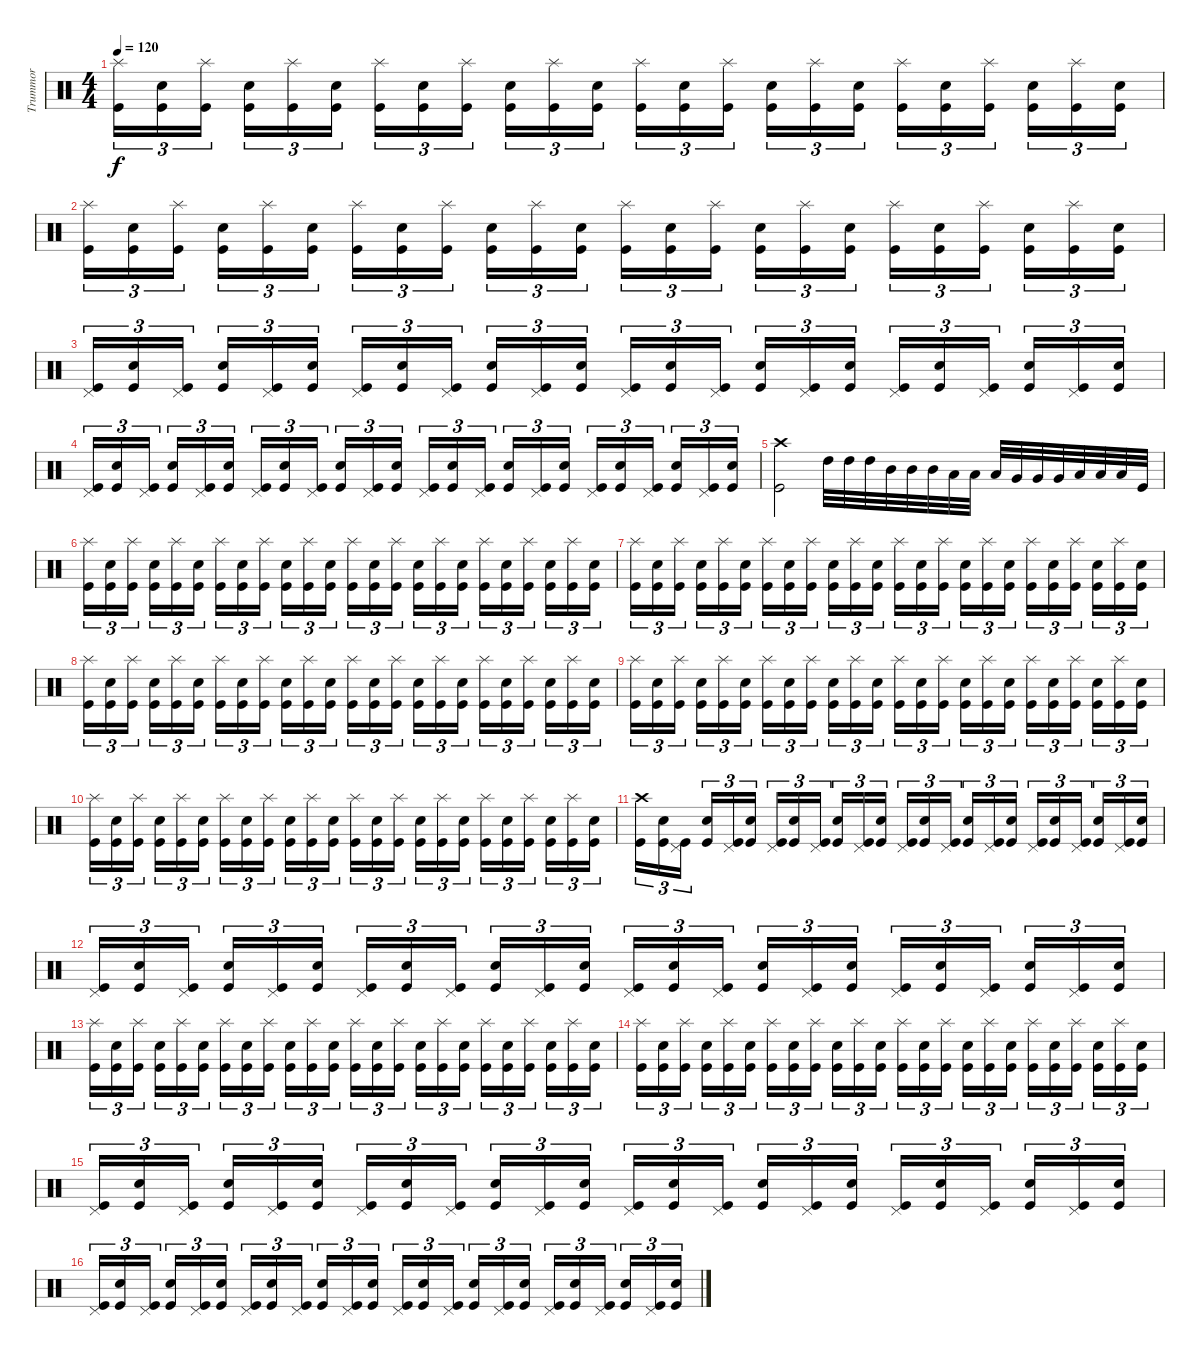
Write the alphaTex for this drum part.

\track ("Trummor" "Trummor") {instrument percussion}
\staff {score}
\articulation defaults
\ts (4 4)
\tempo 120
\clef neutral
\ks c
("Splash (hit)" "Kick (hit)").16{tu (3 2) dy f} ("Electric Snare (hit)" "Kick (hit)").16{tu (3 2)} ("Splash (hit)" "Kick (hit)").16{tu (3 2)} ("Electric Snare (hit)" "Kick (hit)").16{tu (3 2)} ("Splash (hit)" "Kick (hit)").16{tu (3 2)} ("Electric Snare (hit)" "Kick (hit)").16{tu (3 2)} ("Splash (hit)" "Kick (hit)").16{tu (3 2)} ("Electric Snare (hit)" "Kick (hit)").16{tu (3 2)} ("Splash (hit)" "Kick (hit)").16{tu (3 2)} ("Electric Snare (hit)" "Kick (hit)").16{tu (3 2)} ("Splash (hit)" "Kick (hit)").16{tu (3 2)} ("Electric Snare (hit)" "Kick (hit)").16{tu (3 2)} ("Splash (hit)" "Kick (hit)").16{tu (3 2)} ("Electric Snare (hit)" "Kick (hit)").16{tu (3 2)} ("Splash (hit)" "Kick (hit)").16{tu (3 2)} ("Electric Snare (hit)" "Kick (hit)").16{tu (3 2)} ("Splash (hit)" "Kick (hit)").16{tu (3 2)} ("Electric Snare (hit)" "Kick (hit)").16{tu (3 2)} ("Splash (hit)" "Kick (hit)").16{tu (3 2)} ("Electric Snare (hit)" "Kick (hit)").16{tu (3 2)} ("Splash (hit)" "Kick (hit)").16{tu (3 2)} ("Electric Snare (hit)" "Kick (hit)").16{tu (3 2)} ("Splash (hit)" "Kick (hit)").16{tu (3 2)} ("Electric Snare (hit)" "Kick (hit)").16{tu (3 2)} |
("Splash (hit)" "Kick (hit)").16{tu (3 2)} ("Electric Snare (hit)" "Kick (hit)").16{tu (3 2)} ("Splash (hit)" "Kick (hit)").16{tu (3 2)} ("Electric Snare (hit)" "Kick (hit)").16{tu (3 2)} ("Splash (hit)" "Kick (hit)").16{tu (3 2)} ("Electric Snare (hit)" "Kick (hit)").16{tu (3 2)} ("Splash (hit)" "Kick (hit)").16{tu (3 2)} ("Electric Snare (hit)" "Kick (hit)").16{tu (3 2)} ("Splash (hit)" "Kick (hit)").16{tu (3 2)} ("Electric Snare (hit)" "Kick (hit)").16{tu (3 2)} ("Splash (hit)" "Kick (hit)").16{tu (3 2)} ("Electric Snare (hit)" "Kick (hit)").16{tu (3 2)} ("Splash (hit)" "Kick (hit)").16{tu (3 2)} ("Electric Snare (hit)" "Kick (hit)").16{tu (3 2)} ("Splash (hit)" "Kick (hit)").16{tu (3 2)} ("Electric Snare (hit)" "Kick (hit)").16{tu (3 2)} ("Splash (hit)" "Kick (hit)").16{tu (3 2)} ("Electric Snare (hit)" "Kick (hit)").16{tu (3 2)} ("Splash (hit)" "Kick (hit)").16{tu (3 2)} ("Electric Snare (hit)" "Kick (hit)").16{tu (3 2)} ("Splash (hit)" "Kick (hit)").16{tu (3 2)} ("Electric Snare (hit)" "Kick (hit)").16{tu (3 2)} ("Splash (hit)" "Kick (hit)").16{tu (3 2)} ("Electric Snare (hit)" "Kick (hit)").16{tu (3 2)} |
("Pedal Hi-Hat (hit)" "Kick (hit)").16{tu (3 2)} ("Electric Snare (hit)" "Kick (hit)").16{tu (3 2)} ("Pedal Hi-Hat (hit)" "Kick (hit)").16{tu (3 2)} ("Electric Snare (hit)" "Kick (hit)").16{tu (3 2)} ("Pedal Hi-Hat (hit)" "Kick (hit)").16{tu (3 2)} ("Electric Snare (hit)" "Kick (hit)").16{tu (3 2)} ("Pedal Hi-Hat (hit)" "Kick (hit)").16{tu (3 2)} ("Electric Snare (hit)" "Kick (hit)").16{tu (3 2)} ("Pedal Hi-Hat (hit)" "Kick (hit)").16{tu (3 2)} ("Electric Snare (hit)" "Kick (hit)").16{tu (3 2)} ("Pedal Hi-Hat (hit)" "Kick (hit)").16{tu (3 2)} ("Electric Snare (hit)" "Kick (hit)").16{tu (3 2)} ("Pedal Hi-Hat (hit)" "Kick (hit)").16{tu (3 2)} ("Electric Snare (hit)" "Kick (hit)").16{tu (3 2)} ("Pedal Hi-Hat (hit)" "Kick (hit)").16{tu (3 2)} ("Electric Snare (hit)" "Kick (hit)").16{tu (3 2)} ("Pedal Hi-Hat (hit)" "Kick (hit)").16{tu (3 2)} ("Electric Snare (hit)" "Kick (hit)").16{tu (3 2)} ("Pedal Hi-Hat (hit)" "Kick (hit)").16{tu (3 2)} ("Electric Snare (hit)" "Kick (hit)").16{tu (3 2)} ("Pedal Hi-Hat (hit)" "Kick (hit)").16{tu (3 2)} ("Electric Snare (hit)" "Kick (hit)").16{tu (3 2)} ("Pedal Hi-Hat (hit)" "Kick (hit)").16{tu (3 2)} ("Electric Snare (hit)" "Kick (hit)").16{tu (3 2)} |
("Pedal Hi-Hat (hit)" "Kick (hit)").16{tu (3 2)} ("Electric Snare (hit)" "Kick (hit)").16{tu (3 2)} ("Pedal Hi-Hat (hit)" "Kick (hit)").16{tu (3 2)} ("Electric Snare (hit)" "Kick (hit)").16{tu (3 2)} ("Pedal Hi-Hat (hit)" "Kick (hit)").16{tu (3 2)} ("Electric Snare (hit)" "Kick (hit)").16{tu (3 2)} ("Pedal Hi-Hat (hit)" "Kick (hit)").16{tu (3 2)} ("Electric Snare (hit)" "Kick (hit)").16{tu (3 2)} ("Pedal Hi-Hat (hit)" "Kick (hit)").16{tu (3 2)} ("Electric Snare (hit)" "Kick (hit)").16{tu (3 2)} ("Pedal Hi-Hat (hit)" "Kick (hit)").16{tu (3 2)} ("Electric Snare (hit)" "Kick (hit)").16{tu (3 2)} ("Pedal Hi-Hat (hit)" "Kick (hit)").16{tu (3 2)} ("Electric Snare (hit)" "Kick (hit)").16{tu (3 2)} ("Pedal Hi-Hat (hit)" "Kick (hit)").16{tu (3 2)} ("Electric Snare (hit)" "Kick (hit)").16{tu (3 2)} ("Pedal Hi-Hat (hit)" "Kick (hit)").16{tu (3 2)} ("Electric Snare (hit)" "Kick (hit)").16{tu (3 2)} ("Pedal Hi-Hat (hit)" "Kick (hit)").16{tu (3 2)} ("Electric Snare (hit)" "Kick (hit)").16{tu (3 2)} ("Pedal Hi-Hat (hit)" "Kick (hit)").16{tu (3 2)} ("Electric Snare (hit)" "Kick (hit)").16{tu (3 2)} ("Pedal Hi-Hat (hit)" "Kick (hit)").16{tu (3 2)} ("Electric Snare (hit)" "Kick (hit)").16{tu (3 2)} |
("Crash high (hit)" "Kick (hit)").2 "High Tom (hit)".32 "High Tom (hit)".32 "High Tom (hit)".32 "Mid Tom (hit)".32 "Mid Tom (hit)".32 "Mid Tom (hit)".32 "Low Tom (hit)".32 "Low Tom (hit)".32 "Low Tom (hit)".32 "Very Low Tom (hit)".32 "Very Low Tom (hit)".32 "Very Low Tom (hit)".32 "Low Floor Tom (hit)".32 "Low Floor Tom (hit)".32 "Low Floor Tom (hit)".32 "Kick (hit)".32 |
("Splash (hit)" "Kick (hit)").16{tu (3 2)} ("Electric Snare (hit)" "Kick (hit)").16{tu (3 2)} ("Splash (hit)" "Kick (hit)").16{tu (3 2)} ("Electric Snare (hit)" "Kick (hit)").16{tu (3 2)} ("Splash (hit)" "Kick (hit)").16{tu (3 2)} ("Electric Snare (hit)" "Kick (hit)").16{tu (3 2)} ("Splash (hit)" "Kick (hit)").16{tu (3 2)} ("Electric Snare (hit)" "Kick (hit)").16{tu (3 2)} ("Splash (hit)" "Kick (hit)").16{tu (3 2)} ("Electric Snare (hit)" "Kick (hit)").16{tu (3 2)} ("Splash (hit)" "Kick (hit)").16{tu (3 2)} ("Electric Snare (hit)" "Kick (hit)").16{tu (3 2)} ("Splash (hit)" "Kick (hit)").16{tu (3 2)} ("Electric Snare (hit)" "Kick (hit)").16{tu (3 2)} ("Splash (hit)" "Kick (hit)").16{tu (3 2)} ("Electric Snare (hit)" "Kick (hit)").16{tu (3 2)} ("Splash (hit)" "Kick (hit)").16{tu (3 2)} ("Electric Snare (hit)" "Kick (hit)").16{tu (3 2)} ("Splash (hit)" "Kick (hit)").16{tu (3 2)} ("Electric Snare (hit)" "Kick (hit)").16{tu (3 2)} ("Splash (hit)" "Kick (hit)").16{tu (3 2)} ("Electric Snare (hit)" "Kick (hit)").16{tu (3 2)} ("Splash (hit)" "Kick (hit)").16{tu (3 2)} ("Electric Snare (hit)" "Kick (hit)").16{tu (3 2)} |
("Splash (hit)" "Kick (hit)").16{tu (3 2)} ("Electric Snare (hit)" "Kick (hit)").16{tu (3 2)} ("Splash (hit)" "Kick (hit)").16{tu (3 2)} ("Electric Snare (hit)" "Kick (hit)").16{tu (3 2)} ("Splash (hit)" "Kick (hit)").16{tu (3 2)} ("Electric Snare (hit)" "Kick (hit)").16{tu (3 2)} ("Splash (hit)" "Kick (hit)").16{tu (3 2)} ("Electric Snare (hit)" "Kick (hit)").16{tu (3 2)} ("Splash (hit)" "Kick (hit)").16{tu (3 2)} ("Electric Snare (hit)" "Kick (hit)").16{tu (3 2)} ("Splash (hit)" "Kick (hit)").16{tu (3 2)} ("Electric Snare (hit)" "Kick (hit)").16{tu (3 2)} ("Splash (hit)" "Kick (hit)").16{tu (3 2)} ("Electric Snare (hit)" "Kick (hit)").16{tu (3 2)} ("Splash (hit)" "Kick (hit)").16{tu (3 2)} ("Electric Snare (hit)" "Kick (hit)").16{tu (3 2)} ("Splash (hit)" "Kick (hit)").16{tu (3 2)} ("Electric Snare (hit)" "Kick (hit)").16{tu (3 2)} ("Splash (hit)" "Kick (hit)").16{tu (3 2)} ("Electric Snare (hit)" "Kick (hit)").16{tu (3 2)} ("Splash (hit)" "Kick (hit)").16{tu (3 2)} ("Electric Snare (hit)" "Kick (hit)").16{tu (3 2)} ("Splash (hit)" "Kick (hit)").16{tu (3 2)} ("Electric Snare (hit)" "Kick (hit)").16{tu (3 2)} |
("Splash (hit)" "Kick (hit)").16{tu (3 2)} ("Electric Snare (hit)" "Kick (hit)").16{tu (3 2)} ("Splash (hit)" "Kick (hit)").16{tu (3 2)} ("Electric Snare (hit)" "Kick (hit)").16{tu (3 2)} ("Splash (hit)" "Kick (hit)").16{tu (3 2)} ("Electric Snare (hit)" "Kick (hit)").16{tu (3 2)} ("Splash (hit)" "Kick (hit)").16{tu (3 2)} ("Electric Snare (hit)" "Kick (hit)").16{tu (3 2)} ("Splash (hit)" "Kick (hit)").16{tu (3 2)} ("Electric Snare (hit)" "Kick (hit)").16{tu (3 2)} ("Splash (hit)" "Kick (hit)").16{tu (3 2)} ("Electric Snare (hit)" "Kick (hit)").16{tu (3 2)} ("Splash (hit)" "Kick (hit)").16{tu (3 2)} ("Electric Snare (hit)" "Kick (hit)").16{tu (3 2)} ("Splash (hit)" "Kick (hit)").16{tu (3 2)} ("Electric Snare (hit)" "Kick (hit)").16{tu (3 2)} ("Splash (hit)" "Kick (hit)").16{tu (3 2)} ("Electric Snare (hit)" "Kick (hit)").16{tu (3 2)} ("Splash (hit)" "Kick (hit)").16{tu (3 2)} ("Electric Snare (hit)" "Kick (hit)").16{tu (3 2)} ("Splash (hit)" "Kick (hit)").16{tu (3 2)} ("Electric Snare (hit)" "Kick (hit)").16{tu (3 2)} ("Splash (hit)" "Kick (hit)").16{tu (3 2)} ("Electric Snare (hit)" "Kick (hit)").16{tu (3 2)} |
("Splash (hit)" "Kick (hit)").16{tu (3 2)} ("Electric Snare (hit)" "Kick (hit)").16{tu (3 2)} ("Splash (hit)" "Kick (hit)").16{tu (3 2)} ("Electric Snare (hit)" "Kick (hit)").16{tu (3 2)} ("Splash (hit)" "Kick (hit)").16{tu (3 2)} ("Electric Snare (hit)" "Kick (hit)").16{tu (3 2)} ("Splash (hit)" "Kick (hit)").16{tu (3 2)} ("Electric Snare (hit)" "Kick (hit)").16{tu (3 2)} ("Splash (hit)" "Kick (hit)").16{tu (3 2)} ("Electric Snare (hit)" "Kick (hit)").16{tu (3 2)} ("Splash (hit)" "Kick (hit)").16{tu (3 2)} ("Electric Snare (hit)" "Kick (hit)").16{tu (3 2)} ("Splash (hit)" "Kick (hit)").16{tu (3 2)} ("Electric Snare (hit)" "Kick (hit)").16{tu (3 2)} ("Splash (hit)" "Kick (hit)").16{tu (3 2)} ("Electric Snare (hit)" "Kick (hit)").16{tu (3 2)} ("Splash (hit)" "Kick (hit)").16{tu (3 2)} ("Electric Snare (hit)" "Kick (hit)").16{tu (3 2)} ("Splash (hit)" "Kick (hit)").16{tu (3 2)} ("Electric Snare (hit)" "Kick (hit)").16{tu (3 2)} ("Splash (hit)" "Kick (hit)").16{tu (3 2)} ("Electric Snare (hit)" "Kick (hit)").16{tu (3 2)} ("Splash (hit)" "Kick (hit)").16{tu (3 2)} ("Electric Snare (hit)" "Kick (hit)").16{tu (3 2)} |
("Splash (hit)" "Kick (hit)").16{tu (3 2)} ("Electric Snare (hit)" "Kick (hit)").16{tu (3 2)} ("Splash (hit)" "Kick (hit)").16{tu (3 2)} ("Electric Snare (hit)" "Kick (hit)").16{tu (3 2)} ("Splash (hit)" "Kick (hit)").16{tu (3 2)} ("Electric Snare (hit)" "Kick (hit)").16{tu (3 2)} ("Splash (hit)" "Kick (hit)").16{tu (3 2)} ("Electric Snare (hit)" "Kick (hit)").16{tu (3 2)} ("Splash (hit)" "Kick (hit)").16{tu (3 2)} ("Electric Snare (hit)" "Kick (hit)").16{tu (3 2)} ("Splash (hit)" "Kick (hit)").16{tu (3 2)} ("Electric Snare (hit)" "Kick (hit)").16{tu (3 2)} ("Splash (hit)" "Kick (hit)").16{tu (3 2)} ("Electric Snare (hit)" "Kick (hit)").16{tu (3 2)} ("Splash (hit)" "Kick (hit)").16{tu (3 2)} ("Electric Snare (hit)" "Kick (hit)").16{tu (3 2)} ("Splash (hit)" "Kick (hit)").16{tu (3 2)} ("Electric Snare (hit)" "Kick (hit)").16{tu (3 2)} ("Splash (hit)" "Kick (hit)").16{tu (3 2)} ("Electric Snare (hit)" "Kick (hit)").16{tu (3 2)} ("Splash (hit)" "Kick (hit)").16{tu (3 2)} ("Electric Snare (hit)" "Kick (hit)").16{tu (3 2)} ("Splash (hit)" "Kick (hit)").16{tu (3 2)} ("Electric Snare (hit)" "Kick (hit)").16{tu (3 2)} |
("Crash high (hit)" "Kick (hit)").16{tu (3 2)} ("Electric Snare (hit)" "Kick (hit)").16{tu (3 2)} ("Pedal Hi-Hat (hit)" "Kick (hit)").16{tu (3 2)} ("Electric Snare (hit)" "Kick (hit)").16{tu (3 2)} ("Pedal Hi-Hat (hit)" "Kick (hit)").16{tu (3 2)} ("Electric Snare (hit)" "Kick (hit)").16{tu (3 2)} ("Pedal Hi-Hat (hit)" "Kick (hit)").16{tu (3 2)} ("Electric Snare (hit)" "Kick (hit)").16{tu (3 2)} ("Pedal Hi-Hat (hit)" "Kick (hit)").16{tu (3 2)} ("Electric Snare (hit)" "Kick (hit)").16{tu (3 2)} ("Pedal Hi-Hat (hit)" "Kick (hit)").16{tu (3 2)} ("Electric Snare (hit)" "Kick (hit)").16{tu (3 2)} ("Pedal Hi-Hat (hit)" "Kick (hit)").16{tu (3 2)} ("Electric Snare (hit)" "Kick (hit)").16{tu (3 2)} ("Pedal Hi-Hat (hit)" "Kick (hit)").16{tu (3 2)} ("Electric Snare (hit)" "Kick (hit)").16{tu (3 2)} ("Pedal Hi-Hat (hit)" "Kick (hit)").16{tu (3 2)} ("Electric Snare (hit)" "Kick (hit)").16{tu (3 2)} ("Pedal Hi-Hat (hit)" "Kick (hit)").16{tu (3 2)} ("Electric Snare (hit)" "Kick (hit)").16{tu (3 2)} ("Pedal Hi-Hat (hit)" "Kick (hit)").16{tu (3 2)} ("Electric Snare (hit)" "Kick (hit)").16{tu (3 2)} ("Pedal Hi-Hat (hit)" "Kick (hit)").16{tu (3 2)} ("Electric Snare (hit)" "Kick (hit)").16{tu (3 2)} |
("Pedal Hi-Hat (hit)" "Kick (hit)").16{tu (3 2)} ("Electric Snare (hit)" "Kick (hit)").16{tu (3 2)} ("Pedal Hi-Hat (hit)" "Kick (hit)").16{tu (3 2)} ("Electric Snare (hit)" "Kick (hit)").16{tu (3 2)} ("Pedal Hi-Hat (hit)" "Kick (hit)").16{tu (3 2)} ("Electric Snare (hit)" "Kick (hit)").16{tu (3 2)} ("Pedal Hi-Hat (hit)" "Kick (hit)").16{tu (3 2)} ("Electric Snare (hit)" "Kick (hit)").16{tu (3 2)} ("Pedal Hi-Hat (hit)" "Kick (hit)").16{tu (3 2)} ("Electric Snare (hit)" "Kick (hit)").16{tu (3 2)} ("Pedal Hi-Hat (hit)" "Kick (hit)").16{tu (3 2)} ("Electric Snare (hit)" "Kick (hit)").16{tu (3 2)} ("Pedal Hi-Hat (hit)" "Kick (hit)").16{tu (3 2)} ("Electric Snare (hit)" "Kick (hit)").16{tu (3 2)} ("Pedal Hi-Hat (hit)" "Kick (hit)").16{tu (3 2)} ("Electric Snare (hit)" "Kick (hit)").16{tu (3 2)} ("Pedal Hi-Hat (hit)" "Kick (hit)").16{tu (3 2)} ("Electric Snare (hit)" "Kick (hit)").16{tu (3 2)} ("Pedal Hi-Hat (hit)" "Kick (hit)").16{tu (3 2)} ("Electric Snare (hit)" "Kick (hit)").16{tu (3 2)} ("Pedal Hi-Hat (hit)" "Kick (hit)").16{tu (3 2)} ("Electric Snare (hit)" "Kick (hit)").16{tu (3 2)} ("Pedal Hi-Hat (hit)" "Kick (hit)").16{tu (3 2)} ("Electric Snare (hit)" "Kick (hit)").16{tu (3 2)} |
("Splash (hit)" "Kick (hit)").16{tu (3 2)} ("Electric Snare (hit)" "Kick (hit)").16{tu (3 2)} ("Splash (hit)" "Kick (hit)").16{tu (3 2)} ("Electric Snare (hit)" "Kick (hit)").16{tu (3 2)} ("Splash (hit)" "Kick (hit)").16{tu (3 2)} ("Electric Snare (hit)" "Kick (hit)").16{tu (3 2)} ("Splash (hit)" "Kick (hit)").16{tu (3 2)} ("Electric Snare (hit)" "Kick (hit)").16{tu (3 2)} ("Splash (hit)" "Kick (hit)").16{tu (3 2)} ("Electric Snare (hit)" "Kick (hit)").16{tu (3 2)} ("Splash (hit)" "Kick (hit)").16{tu (3 2)} ("Electric Snare (hit)" "Kick (hit)").16{tu (3 2)} ("Splash (hit)" "Kick (hit)").16{tu (3 2)} ("Electric Snare (hit)" "Kick (hit)").16{tu (3 2)} ("Splash (hit)" "Kick (hit)").16{tu (3 2)} ("Electric Snare (hit)" "Kick (hit)").16{tu (3 2)} ("Splash (hit)" "Kick (hit)").16{tu (3 2)} ("Electric Snare (hit)" "Kick (hit)").16{tu (3 2)} ("Splash (hit)" "Kick (hit)").16{tu (3 2)} ("Electric Snare (hit)" "Kick (hit)").16{tu (3 2)} ("Splash (hit)" "Kick (hit)").16{tu (3 2)} ("Electric Snare (hit)" "Kick (hit)").16{tu (3 2)} ("Splash (hit)" "Kick (hit)").16{tu (3 2)} ("Electric Snare (hit)" "Kick (hit)").16{tu (3 2)} |
("Splash (hit)" "Kick (hit)").16{tu (3 2)} ("Electric Snare (hit)" "Kick (hit)").16{tu (3 2)} ("Splash (hit)" "Kick (hit)").16{tu (3 2)} ("Electric Snare (hit)" "Kick (hit)").16{tu (3 2)} ("Splash (hit)" "Kick (hit)").16{tu (3 2)} ("Electric Snare (hit)" "Kick (hit)").16{tu (3 2)} ("Splash (hit)" "Kick (hit)").16{tu (3 2)} ("Electric Snare (hit)" "Kick (hit)").16{tu (3 2)} ("Splash (hit)" "Kick (hit)").16{tu (3 2)} ("Electric Snare (hit)" "Kick (hit)").16{tu (3 2)} ("Splash (hit)" "Kick (hit)").16{tu (3 2)} ("Electric Snare (hit)" "Kick (hit)").16{tu (3 2)} ("Splash (hit)" "Kick (hit)").16{tu (3 2)} ("Electric Snare (hit)" "Kick (hit)").16{tu (3 2)} ("Splash (hit)" "Kick (hit)").16{tu (3 2)} ("Electric Snare (hit)" "Kick (hit)").16{tu (3 2)} ("Splash (hit)" "Kick (hit)").16{tu (3 2)} ("Electric Snare (hit)" "Kick (hit)").16{tu (3 2)} ("Splash (hit)" "Kick (hit)").16{tu (3 2)} ("Electric Snare (hit)" "Kick (hit)").16{tu (3 2)} ("Splash (hit)" "Kick (hit)").16{tu (3 2)} ("Electric Snare (hit)" "Kick (hit)").16{tu (3 2)} ("Splash (hit)" "Kick (hit)").16{tu (3 2)} ("Electric Snare (hit)" "Kick (hit)").16{tu (3 2)} |
("Pedal Hi-Hat (hit)" "Kick (hit)").16{tu (3 2)} ("Electric Snare (hit)" "Kick (hit)").16{tu (3 2)} ("Pedal Hi-Hat (hit)" "Kick (hit)").16{tu (3 2)} ("Electric Snare (hit)" "Kick (hit)").16{tu (3 2)} ("Pedal Hi-Hat (hit)" "Kick (hit)").16{tu (3 2)} ("Electric Snare (hit)" "Kick (hit)").16{tu (3 2)} ("Pedal Hi-Hat (hit)" "Kick (hit)").16{tu (3 2)} ("Electric Snare (hit)" "Kick (hit)").16{tu (3 2)} ("Pedal Hi-Hat (hit)" "Kick (hit)").16{tu (3 2)} ("Electric Snare (hit)" "Kick (hit)").16{tu (3 2)} ("Pedal Hi-Hat (hit)" "Kick (hit)").16{tu (3 2)} ("Electric Snare (hit)" "Kick (hit)").16{tu (3 2)} ("Pedal Hi-Hat (hit)" "Kick (hit)").16{tu (3 2)} ("Electric Snare (hit)" "Kick (hit)").16{tu (3 2)} ("Pedal Hi-Hat (hit)" "Kick (hit)").16{tu (3 2)} ("Electric Snare (hit)" "Kick (hit)").16{tu (3 2)} ("Pedal Hi-Hat (hit)" "Kick (hit)").16{tu (3 2)} ("Electric Snare (hit)" "Kick (hit)").16{tu (3 2)} ("Pedal Hi-Hat (hit)" "Kick (hit)").16{tu (3 2)} ("Electric Snare (hit)" "Kick (hit)").16{tu (3 2)} ("Pedal Hi-Hat (hit)" "Kick (hit)").16{tu (3 2)} ("Electric Snare (hit)" "Kick (hit)").16{tu (3 2)} ("Pedal Hi-Hat (hit)" "Kick (hit)").16{tu (3 2)} ("Electric Snare (hit)" "Kick (hit)").16{tu (3 2)} |
("Pedal Hi-Hat (hit)" "Kick (hit)").16{tu (3 2)} ("Electric Snare (hit)" "Kick (hit)").16{tu (3 2)} ("Pedal Hi-Hat (hit)" "Kick (hit)").16{tu (3 2)} ("Electric Snare (hit)" "Kick (hit)").16{tu (3 2)} ("Pedal Hi-Hat (hit)" "Kick (hit)").16{tu (3 2)} ("Electric Snare (hit)" "Kick (hit)").16{tu (3 2)} ("Pedal Hi-Hat (hit)" "Kick (hit)").16{tu (3 2)} ("Electric Snare (hit)" "Kick (hit)").16{tu (3 2)} ("Pedal Hi-Hat (hit)" "Kick (hit)").16{tu (3 2)} ("Electric Snare (hit)" "Kick (hit)").16{tu (3 2)} ("Pedal Hi-Hat (hit)" "Kick (hit)").16{tu (3 2)} ("Electric Snare (hit)" "Kick (hit)").16{tu (3 2)} ("Pedal Hi-Hat (hit)" "Kick (hit)").16{tu (3 2)} ("Electric Snare (hit)" "Kick (hit)").16{tu (3 2)} ("Pedal Hi-Hat (hit)" "Kick (hit)").16{tu (3 2)} ("Electric Snare (hit)" "Kick (hit)").16{tu (3 2)} ("Pedal Hi-Hat (hit)" "Kick (hit)").16{tu (3 2)} ("Electric Snare (hit)" "Kick (hit)").16{tu (3 2)} ("Pedal Hi-Hat (hit)" "Kick (hit)").16{tu (3 2)} ("Electric Snare (hit)" "Kick (hit)").16{tu (3 2)} ("Pedal Hi-Hat (hit)" "Kick (hit)").16{tu (3 2)} ("Electric Snare (hit)" "Kick (hit)").16{tu (3 2)} ("Pedal Hi-Hat (hit)" "Kick (hit)").16{tu (3 2)} ("Electric Snare (hit)" "Kick (hit)").16{tu (3 2)}
